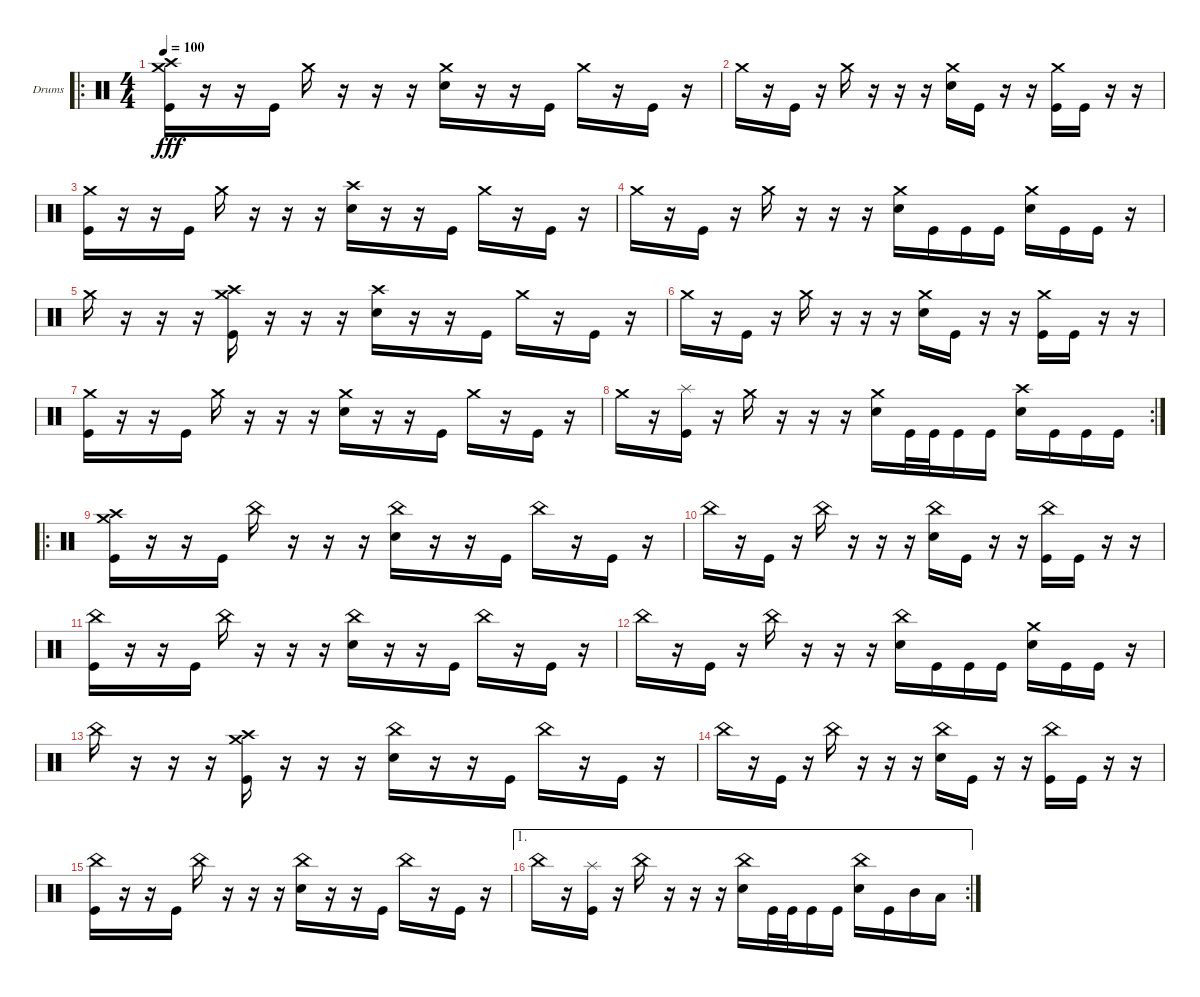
\bracketExtendMode groupsimilarinstruments
\firstSystemTrackNameOrientation horizontal
\otherSystemsTrackNameOrientation horizontal
\track ("Drumkit" "Drums") {instrument percussion}
\staff {score}
\articulation defaults
\ro
\ts (4 4)
\tempo 100
\clef neutral
\ks c
("Crash high (hit)" "Crash medium (hit)" "Kick (hit)").16{dy fff} r.16 r.16 "Kick (hit)".16 "Crash medium (hit)".16 r.16 r.16 r.16 ("Snare (hit) 2" "Crash medium (hit)").16 r.16 r.16 "Kick (hit)".16 "Crash medium (hit)".16 r.16 "Kick (hit)".16 r.16 |
"Crash medium (hit)".16 r.16 "Kick (hit)".16 r.16 "Crash medium (hit)".16 r.16 r.16 r.16 ("Snare (hit) 2" "Crash medium (hit)").16 "Kick (hit)".16 r.16 r.16 ("Crash medium (hit)" "Kick (hit)").16 "Kick (hit)".16 r.16 r.16 |
("Crash medium (hit)" "Kick (hit)").16 r.16 r.16 "Kick (hit)".16 "Crash medium (hit)".16 r.16 r.16 r.16 ("Snare (hit) 2" "Crash high (hit)").16 r.16 r.16 "Kick (hit)".16 "Crash medium (hit)".16 r.16 "Kick (hit)".16 r.16 |
"Crash medium (hit)".16 r.16 "Kick (hit)".16 r.16 "Crash medium (hit)".16 r.16 r.16 r.16 ("Snare (hit) 2" "Crash medium (hit)").16 "Kick (hit)".16 "Kick (hit)".16 "Kick (hit)".16 ("Crash medium (hit)" "Snare (hit) 2").16 "Kick (hit)".16 "Kick (hit)".16 r.16 |
"Crash medium (hit)".16 r.16 r.16 r.16 ("Crash medium (hit)" "Kick (hit)" "Crash high (hit)").16 r.16 r.16 r.16 ("Snare (hit) 2" "Crash high (hit)").16 r.16 r.16 "Kick (hit)".16 "Crash medium (hit)".16 r.16 "Kick (hit)".16 r.16 |
"Crash medium (hit)".16 r.16 "Kick (hit)".16 r.16 "Crash medium (hit)".16 r.16 r.16 r.16 ("Snare (hit) 2" "Crash medium (hit)").16 "Kick (hit)".16 r.16 r.16 ("Crash medium (hit)" "Kick (hit)").16 "Kick (hit)".16 r.16 r.16 |
("Crash medium (hit)" "Kick (hit)").16 r.16 r.16 "Kick (hit)".16 "Crash medium (hit)".16 r.16 r.16 r.16 ("Snare (hit) 2" "Crash medium (hit)").16 r.16 r.16 "Kick (hit)".16 "Crash medium (hit)".16 r.16 "Kick (hit)".16 r.16 |
\rc 2 "Crash medium (hit)".16
r.16 ("Kick (hit)" "Splash (hit)").16 r.16 "Crash medium (hit)".16 r.16 r.16 r.16 ("Snare (hit) 2" "Crash medium (hit)").16 "Kick (hit)".32 "Kick (hit)".32 "Kick (hit)".16 "Kick (hit)".16 ("Snare (hit) 2" "Crash high (hit)").16 "Kick (hit)".16 "Kick (hit)".16 "Kick (hit)".16 |
\ro
("Crash high (hit)" "Crash medium (hit)" "Kick (hit)").16 r.16 r.16 "Kick (hit)".16 "China (hit)".16 r.16 r.16 r.16 ("Snare (hit) 2" "China (hit)").16 r.16 r.16 "Kick (hit)".16 "China (hit)".16 r.16 "Kick (hit)".16 r.16 |
"China (hit)".16 r.16 "Kick (hit)".16 r.16 "China (hit)".16 r.16 r.16 r.16 ("Snare (hit) 2" "China (hit)").16 "Kick (hit)".16 r.16 r.16 ("Kick (hit)" "China (hit)").16 "Kick (hit)".16 r.16 r.16 |
("Kick (hit)" "China (hit)").16 r.16 r.16 "Kick (hit)".16 "China (hit)".16 r.16 r.16 r.16 ("Snare (hit) 2" "China (hit)").16 r.16 r.16 "Kick (hit)".16 "China (hit)".16 r.16 "Kick (hit)".16 r.16 |
"China (hit)".16 r.16 "Kick (hit)".16 r.16 "China (hit)".16 r.16 r.16 r.16 ("Snare (hit) 2" "China (hit)").16 "Kick (hit)".16 "Kick (hit)".16 "Kick (hit)".16 ("Crash medium (hit)" "Snare (hit) 2").16 "Kick (hit)".16 "Kick (hit)".16 r.16 |
"China (hit)".16 r.16 r.16 r.16 ("Crash medium (hit)" "Kick (hit)" "Crash high (hit)").16 r.16 r.16 r.16 ("Snare (hit) 2" "China (hit)").16 r.16 r.16 "Kick (hit)".16 "China (hit)".16 r.16 "Kick (hit)".16 r.16 |
"China (hit)".16 r.16 "Kick (hit)".16 r.16 "China (hit)".16 r.16 r.16 r.16 ("Snare (hit) 2" "China (hit)").16 "Kick (hit)".16 r.16 r.16 ("Kick (hit)" "China (hit)").16 "Kick (hit)".16 r.16 r.16 |
("Kick (hit)" "China (hit)").16 r.16 r.16 "Kick (hit)".16 "China (hit)".16 r.16 r.16 r.16 ("Snare (hit) 2" "China (hit)").16 r.16 r.16 "Kick (hit)".16 "China (hit)".16 r.16 "Kick (hit)".16 r.16 |
\ae 1
\rc 2 "China (hit)".16
r.16 ("Kick (hit)" "Splash (hit)").16 r.16 "China (hit)".16 r.16 r.16 r.16 ("Snare (hit) 2" "China (hit)").16 "Kick (hit)".32 "Kick (hit)".32 "Kick (hit)".16 "Kick (hit)".16 ("Snare (hit) 2" "China (hit)").16 "Kick (hit)".16 "Mid Tom (hit)".16 "Low Tom (hit)".16
